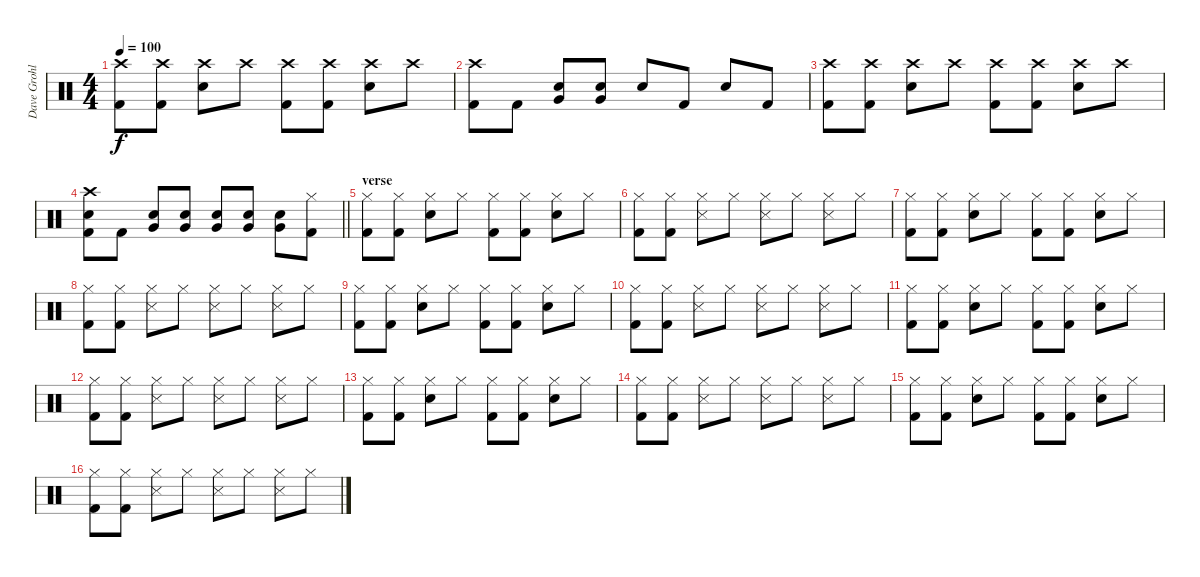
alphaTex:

\track ("Dave Grohl" "Dave Grohl") {instrument percussion}
\staff {score}
\articulation defaults
\ts (4 4)
\tempo 100
\clef neutral
\ks c
("Crash high (hit)" "Kick (hit) 2").8{dy f} ("Crash high (hit)" "Kick (hit) 2").8 ("Crash high (hit)" "Snare (hit) 2").8 "Crash high (hit)".8 ("Crash high (hit)" "Kick (hit) 2").8 ("Crash high (hit)" "Kick (hit) 2").8 ("Crash high (hit)" "Snare (hit) 2").8 "Crash high (hit)".8 |
("Crash high (hit)" "Kick (hit) 2").8 "Kick (hit) 2".8 ("Snare (hit) 2" "Very Low Tom (hit)").8 ("Snare (hit) 2" "Very Low Tom (hit)").8 "Snare (hit) 2".8 "Kick (hit) 2".8 "Snare (hit) 2".8 "Kick (hit) 2".8 |
("Crash high (hit)" "Kick (hit) 2").8 ("Crash high (hit)" "Kick (hit) 2").8 ("Crash high (hit)" "Snare (hit) 2").8 "Crash high (hit)".8 ("Crash high (hit)" "Kick (hit) 2").8 ("Crash high (hit)" "Kick (hit) 2").8 ("Crash high (hit)" "Snare (hit) 2").8 "Crash high (hit)".8 |
\barLineRight lightlight
("Crash high (hit)" "Snare (hit) 2" "Kick (hit) 2").8 "Kick (hit) 2".8 ("Snare (hit) 2" "Very Low Tom (hit)").8 ("Snare (hit) 2" "Very Low Tom (hit)").8 ("Snare (hit) 2" "Very Low Tom (hit)").8 ("Snare (hit) 2" "Very Low Tom (hit)").8 ("Snare (hit) 2" "Very Low Tom (hit)").8 ("Hi-Hat (closed)" "Kick (hit) 2").8 |
\section ("" "verse")
("Hi-Hat (closed)" "Kick (hit) 2").8 ("Hi-Hat (closed)" "Kick (hit) 2").8 ("Hi-Hat (closed)" "Snare (hit) 2").8 "Hi-Hat (closed)".8 ("Hi-Hat (closed)" "Kick (hit) 2").8 ("Hi-Hat (closed)" "Kick (hit) 2").8 ("Hi-Hat (closed)" "Snare (hit) 2").8 "Hi-Hat (closed)".8 |
("Hi-Hat (closed)" "Kick (hit) 2").8 ("Hi-Hat (closed)" "Kick (hit) 2").8 ("Hi-Hat (closed)" "Snare (side stick) 3").8 "Hi-Hat (closed)".8 ("Hi-Hat (closed)" "Snare (side stick) 3").8 "Hi-Hat (closed)".8 ("Hi-Hat (closed)" "Snare (side stick) 3").8 "Hi-Hat (closed)".8 |
("Hi-Hat (closed)" "Kick (hit) 2").8 ("Hi-Hat (closed)" "Kick (hit) 2").8 ("Hi-Hat (closed)" "Snare (hit) 2").8 "Hi-Hat (closed)".8 ("Hi-Hat (closed)" "Kick (hit) 2").8 ("Hi-Hat (closed)" "Kick (hit) 2").8 ("Hi-Hat (closed)" "Snare (hit) 2").8 "Hi-Hat (closed)".8 |
("Hi-Hat (closed)" "Kick (hit) 2").8 ("Hi-Hat (closed)" "Kick (hit) 2").8 ("Hi-Hat (closed)" "Snare (side stick) 3").8 "Hi-Hat (closed)".8 ("Hi-Hat (closed)" "Snare (side stick) 3").8 "Hi-Hat (closed)".8 ("Hi-Hat (closed)" "Snare (side stick) 3").8 "Hi-Hat (closed)".8 |
("Hi-Hat (closed)" "Kick (hit) 2").8 ("Hi-Hat (closed)" "Kick (hit) 2").8 ("Hi-Hat (closed)" "Snare (hit) 2").8 "Hi-Hat (closed)".8 ("Hi-Hat (closed)" "Kick (hit) 2").8 ("Hi-Hat (closed)" "Kick (hit) 2").8 ("Hi-Hat (closed)" "Snare (hit) 2").8 "Hi-Hat (closed)".8 |
("Hi-Hat (closed)" "Kick (hit) 2").8 ("Hi-Hat (closed)" "Kick (hit) 2").8 ("Hi-Hat (closed)" "Snare (side stick) 3").8 "Hi-Hat (closed)".8 ("Hi-Hat (closed)" "Snare (side stick) 3").8 "Hi-Hat (closed)".8 ("Hi-Hat (closed)" "Snare (side stick) 3").8 "Hi-Hat (closed)".8 |
("Hi-Hat (closed)" "Kick (hit) 2").8 ("Hi-Hat (closed)" "Kick (hit) 2").8 ("Hi-Hat (closed)" "Snare (hit) 2").8 "Hi-Hat (closed)".8 ("Hi-Hat (closed)" "Kick (hit) 2").8 ("Hi-Hat (closed)" "Kick (hit) 2").8 ("Hi-Hat (closed)" "Snare (hit) 2").8 "Hi-Hat (closed)".8 |
("Hi-Hat (closed)" "Kick (hit) 2").8 ("Hi-Hat (closed)" "Kick (hit) 2").8 ("Hi-Hat (closed)" "Snare (side stick) 3").8 "Hi-Hat (closed)".8 ("Hi-Hat (closed)" "Snare (side stick) 3").8 "Hi-Hat (closed)".8 ("Hi-Hat (closed)" "Snare (side stick) 3").8 "Hi-Hat (closed)".8 |
("Hi-Hat (closed)" "Kick (hit) 2").8 ("Hi-Hat (closed)" "Kick (hit) 2").8 ("Hi-Hat (closed)" "Snare (hit) 2").8 "Hi-Hat (closed)".8 ("Hi-Hat (closed)" "Kick (hit) 2").8 ("Hi-Hat (closed)" "Kick (hit) 2").8 ("Hi-Hat (closed)" "Snare (hit) 2").8 "Hi-Hat (closed)".8 |
("Hi-Hat (closed)" "Kick (hit) 2").8 ("Hi-Hat (closed)" "Kick (hit) 2").8 ("Hi-Hat (closed)" "Snare (side stick) 3").8 "Hi-Hat (closed)".8 ("Hi-Hat (closed)" "Snare (side stick) 3").8 "Hi-Hat (closed)".8 ("Hi-Hat (closed)" "Snare (side stick) 3").8 "Hi-Hat (closed)".8 |
("Hi-Hat (closed)" "Kick (hit) 2").8 ("Hi-Hat (closed)" "Kick (hit) 2").8 ("Hi-Hat (closed)" "Snare (hit) 2").8 "Hi-Hat (closed)".8 ("Hi-Hat (closed)" "Kick (hit) 2").8 ("Hi-Hat (closed)" "Kick (hit) 2").8 ("Hi-Hat (closed)" "Snare (hit) 2").8 "Hi-Hat (closed)".8 |
("Hi-Hat (closed)" "Kick (hit) 2").8 ("Hi-Hat (closed)" "Kick (hit) 2").8 ("Hi-Hat (closed)" "Snare (side stick) 3").8 "Hi-Hat (closed)".8 ("Hi-Hat (closed)" "Snare (side stick) 3").8 "Hi-Hat (closed)".8 ("Hi-Hat (closed)" "Snare (side stick) 3").8 "Hi-Hat (closed)".8
